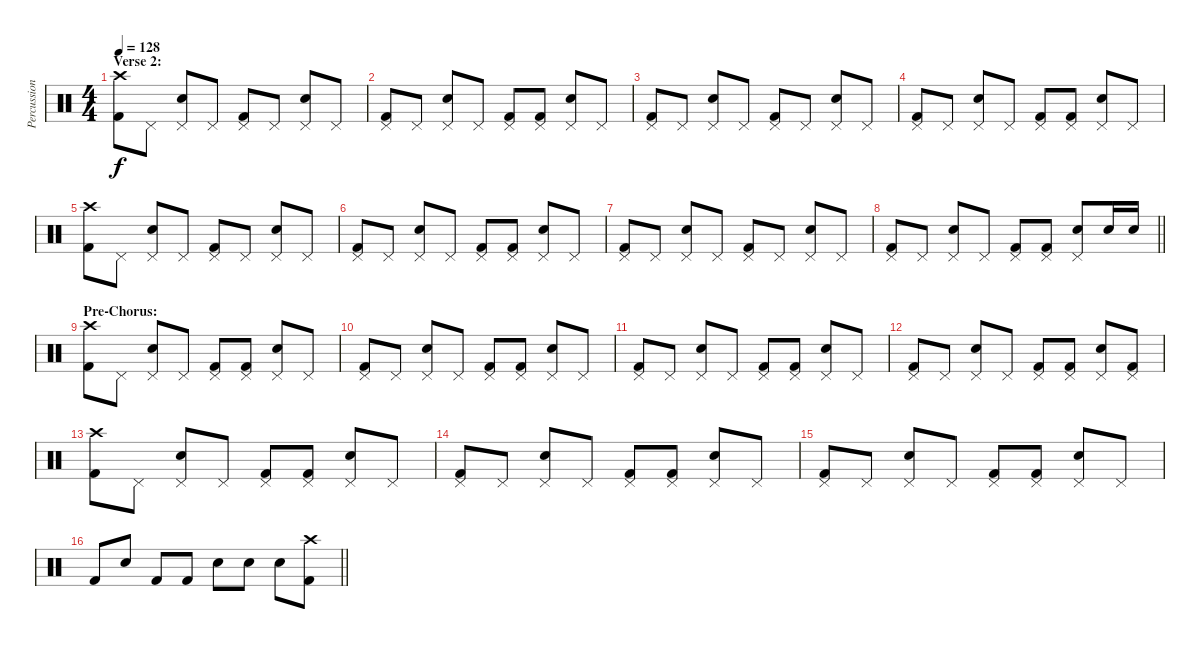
\track ("Percussion" "Percussion") {instrument percussion}
\staff {score}
\articulation defaults
\ts (4 4)
\section ("" "Verse 2:")
\tempo 128
\clef neutral
\ks c
("Crash high (hit)" "Kick (hit) 2").8{dy f} "Pedal Hi-Hat (hit)".8 ("Pedal Hi-Hat (hit)" "Electric Snare (hit)").8 "Pedal Hi-Hat (hit)".8 ("Pedal Hi-Hat (hit)" "Kick (hit) 2").8 "Pedal Hi-Hat (hit)".8 ("Pedal Hi-Hat (hit)" "Electric Snare (hit)").8 "Pedal Hi-Hat (hit)".8 |
("Pedal Hi-Hat (hit)" "Kick (hit) 2").8 "Pedal Hi-Hat (hit)".8 ("Pedal Hi-Hat (hit)" "Electric Snare (hit)").8 "Pedal Hi-Hat (hit)".8 ("Pedal Hi-Hat (hit)" "Kick (hit) 2").8 ("Pedal Hi-Hat (hit)" "Kick (hit) 2").8 ("Pedal Hi-Hat (hit)" "Electric Snare (hit)").8 "Pedal Hi-Hat (hit)".8 |
("Pedal Hi-Hat (hit)" "Kick (hit) 2").8 "Pedal Hi-Hat (hit)".8 ("Pedal Hi-Hat (hit)" "Electric Snare (hit)").8 "Pedal Hi-Hat (hit)".8 ("Pedal Hi-Hat (hit)" "Kick (hit) 2").8 "Pedal Hi-Hat (hit)".8 ("Pedal Hi-Hat (hit)" "Electric Snare (hit)").8 "Pedal Hi-Hat (hit)".8 |
("Pedal Hi-Hat (hit)" "Kick (hit) 2").8 "Pedal Hi-Hat (hit)".8 ("Pedal Hi-Hat (hit)" "Electric Snare (hit)").8 "Pedal Hi-Hat (hit)".8 ("Pedal Hi-Hat (hit)" "Kick (hit) 2").8 ("Pedal Hi-Hat (hit)" "Kick (hit) 2").8 ("Pedal Hi-Hat (hit)" "Electric Snare (hit)").8 "Pedal Hi-Hat (hit)".8 |
("Crash high (hit)" "Kick (hit) 2").8 "Pedal Hi-Hat (hit)".8 ("Pedal Hi-Hat (hit)" "Electric Snare (hit)").8 "Pedal Hi-Hat (hit)".8 ("Pedal Hi-Hat (hit)" "Kick (hit) 2").8 "Pedal Hi-Hat (hit)".8 ("Pedal Hi-Hat (hit)" "Electric Snare (hit)").8 "Pedal Hi-Hat (hit)".8 |
("Pedal Hi-Hat (hit)" "Kick (hit) 2").8 "Pedal Hi-Hat (hit)".8 ("Pedal Hi-Hat (hit)" "Electric Snare (hit)").8 "Pedal Hi-Hat (hit)".8 ("Pedal Hi-Hat (hit)" "Kick (hit) 2").8 ("Pedal Hi-Hat (hit)" "Kick (hit) 2").8 ("Pedal Hi-Hat (hit)" "Electric Snare (hit)").8 "Pedal Hi-Hat (hit)".8 |
("Pedal Hi-Hat (hit)" "Kick (hit) 2").8 "Pedal Hi-Hat (hit)".8 ("Pedal Hi-Hat (hit)" "Electric Snare (hit)").8 "Pedal Hi-Hat (hit)".8 ("Pedal Hi-Hat (hit)" "Kick (hit) 2").8 "Pedal Hi-Hat (hit)".8 ("Pedal Hi-Hat (hit)" "Electric Snare (hit)").8 "Pedal Hi-Hat (hit)".8 |
\barLineRight lightlight
("Pedal Hi-Hat (hit)" "Kick (hit) 2").8 "Pedal Hi-Hat (hit)".8 ("Pedal Hi-Hat (hit)" "Electric Snare (hit)").8 "Pedal Hi-Hat (hit)".8 ("Pedal Hi-Hat (hit)" "Kick (hit) 2").8 ("Pedal Hi-Hat (hit)" "Kick (hit) 2").8 ("Pedal Hi-Hat (hit)" "Electric Snare (hit)").8 "Electric Snare (hit)".16 "Electric Snare (hit)".16 |
\section ("" "Pre-Chorus:")
("Crash high (hit)" "Kick (hit) 2").8 "Pedal Hi-Hat (hit)".8 ("Pedal Hi-Hat (hit)" "Electric Snare (hit)").8 "Pedal Hi-Hat (hit)".8 ("Pedal Hi-Hat (hit)" "Kick (hit) 2").8 ("Pedal Hi-Hat (hit)" "Kick (hit) 2").8 ("Pedal Hi-Hat (hit)" "Electric Snare (hit)").8 "Pedal Hi-Hat (hit)".8 |
("Pedal Hi-Hat (hit)" "Kick (hit) 2").8 "Pedal Hi-Hat (hit)".8 ("Pedal Hi-Hat (hit)" "Electric Snare (hit)").8 "Pedal Hi-Hat (hit)".8 ("Pedal Hi-Hat (hit)" "Kick (hit) 2").8 ("Pedal Hi-Hat (hit)" "Kick (hit) 2").8 ("Pedal Hi-Hat (hit)" "Electric Snare (hit)").8 "Pedal Hi-Hat (hit)".8 |
("Pedal Hi-Hat (hit)" "Kick (hit) 2").8 "Pedal Hi-Hat (hit)".8 ("Pedal Hi-Hat (hit)" "Electric Snare (hit)").8 "Pedal Hi-Hat (hit)".8 ("Pedal Hi-Hat (hit)" "Kick (hit) 2").8 ("Pedal Hi-Hat (hit)" "Kick (hit) 2").8 ("Pedal Hi-Hat (hit)" "Electric Snare (hit)").8 "Pedal Hi-Hat (hit)".8 |
("Pedal Hi-Hat (hit)" "Kick (hit) 2").8 "Pedal Hi-Hat (hit)".8 ("Pedal Hi-Hat (hit)" "Electric Snare (hit)").8 "Pedal Hi-Hat (hit)".8 ("Pedal Hi-Hat (hit)" "Kick (hit) 2").8 ("Pedal Hi-Hat (hit)" "Kick (hit) 2").8 ("Pedal Hi-Hat (hit)" "Electric Snare (hit)").8 ("Pedal Hi-Hat (hit)" "Kick (hit) 2").8 |
("Crash high (hit)" "Kick (hit) 2").8 "Pedal Hi-Hat (hit)".8 ("Pedal Hi-Hat (hit)" "Electric Snare (hit)").8 "Pedal Hi-Hat (hit)".8 ("Pedal Hi-Hat (hit)" "Kick (hit) 2").8 ("Pedal Hi-Hat (hit)" "Kick (hit) 2").8 ("Pedal Hi-Hat (hit)" "Electric Snare (hit)").8 "Pedal Hi-Hat (hit)".8 |
("Pedal Hi-Hat (hit)" "Kick (hit) 2").8 "Pedal Hi-Hat (hit)".8 ("Pedal Hi-Hat (hit)" "Electric Snare (hit)").8 "Pedal Hi-Hat (hit)".8 ("Pedal Hi-Hat (hit)" "Kick (hit) 2").8 ("Pedal Hi-Hat (hit)" "Kick (hit) 2").8 ("Pedal Hi-Hat (hit)" "Electric Snare (hit)").8 "Pedal Hi-Hat (hit)".8 |
("Pedal Hi-Hat (hit)" "Kick (hit) 2").8 "Pedal Hi-Hat (hit)".8 ("Pedal Hi-Hat (hit)" "Electric Snare (hit)").8 "Pedal Hi-Hat (hit)".8 ("Pedal Hi-Hat (hit)" "Kick (hit) 2").8 ("Pedal Hi-Hat (hit)" "Kick (hit) 2").8 ("Pedal Hi-Hat (hit)" "Electric Snare (hit)").8 "Pedal Hi-Hat (hit)".8 |
\barLineRight lightlight "Kick (hit) 2".8 "Electric Snare (hit)".8 "Kick (hit) 2".8 "Kick (hit) 2".8 "Electric Snare (hit)".8 "Electric Snare (hit)".8 "Electric Snare (hit)".8
("Crash high (hit)" "Kick (hit) 2").8
